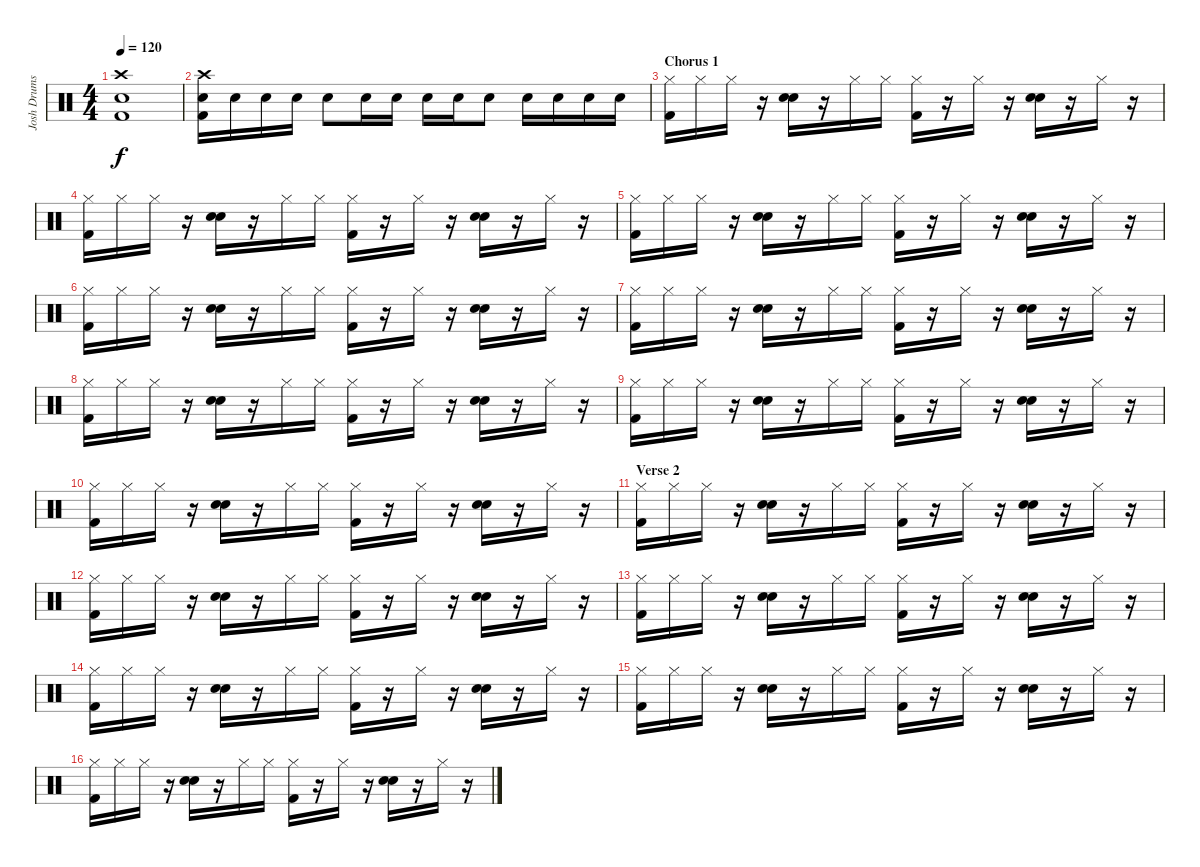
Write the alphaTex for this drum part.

\track ("Josh Drums" "Josh Drums") {instrument percussion}
\staff {score}
\articulation defaults
\ts (4 4)
\tempo 120
\clef neutral
\ks c
("Crash high (hit)" "Electric Snare (hit)" "Kick (hit) 2").1{dy f} |
("Crash high (hit)" "Electric Snare (hit)" "Kick (hit) 2").16 "Electric Snare (hit)".16 "Electric Snare (hit)".16 "Electric Snare (hit)".16 "Electric Snare (hit)".8 "Electric Snare (hit)".16 "Electric Snare (hit)".16 "Electric Snare (hit)".16 "Electric Snare (hit)".16 "Electric Snare (hit)".8 "Electric Snare (hit)".16 "Electric Snare (hit)".16 "Electric Snare (hit)".16 "Electric Snare (hit)".16 |
\section ("" "Chorus 1")
("Hi-Hat (closed)" "Kick (hit) 2").16 "Hi-Hat (closed)".16 "Hi-Hat (closed)".16 r.16 ("Hand Clap (hit)" "Hand Clap (hit)").16 r.16 "Hi-Hat (closed)".16 "Hi-Hat (closed)".16 ("Hi-Hat (closed)" "Kick (hit) 2").16 r.16 "Hi-Hat (closed)".16 r.16 ("Hand Clap (hit)" "Hand Clap (hit)").16 r.16 "Hi-Hat (closed)".16 r.16 |
("Hi-Hat (closed)" "Kick (hit) 2").16 "Hi-Hat (closed)".16 "Hi-Hat (closed)".16 r.16 ("Hand Clap (hit)" "Hand Clap (hit)").16 r.16 "Hi-Hat (closed)".16 "Hi-Hat (closed)".16 ("Hi-Hat (closed)" "Kick (hit) 2").16 r.16 "Hi-Hat (closed)".16 r.16 ("Hand Clap (hit)" "Hand Clap (hit)").16 r.16 "Hi-Hat (closed)".16 r.16 |
("Hi-Hat (closed)" "Kick (hit) 2").16 "Hi-Hat (closed)".16 "Hi-Hat (closed)".16 r.16 ("Hand Clap (hit)" "Hand Clap (hit)").16 r.16 "Hi-Hat (closed)".16 "Hi-Hat (closed)".16 ("Hi-Hat (closed)" "Kick (hit) 2").16 r.16 "Hi-Hat (closed)".16 r.16 ("Hand Clap (hit)" "Hand Clap (hit)").16 r.16 "Hi-Hat (closed)".16 r.16 |
("Hi-Hat (closed)" "Kick (hit) 2").16 "Hi-Hat (closed)".16 "Hi-Hat (closed)".16 r.16 ("Hand Clap (hit)" "Hand Clap (hit)").16 r.16 "Hi-Hat (closed)".16 "Hi-Hat (closed)".16 ("Hi-Hat (closed)" "Kick (hit) 2").16 r.16 "Hi-Hat (closed)".16 r.16 ("Hand Clap (hit)" "Hand Clap (hit)").16 r.16 "Hi-Hat (closed)".16 r.16 |
("Hi-Hat (closed)" "Kick (hit) 2").16 "Hi-Hat (closed)".16 "Hi-Hat (closed)".16 r.16 ("Hand Clap (hit)" "Hand Clap (hit)").16 r.16 "Hi-Hat (closed)".16 "Hi-Hat (closed)".16 ("Hi-Hat (closed)" "Kick (hit) 2").16 r.16 "Hi-Hat (closed)".16 r.16 ("Hand Clap (hit)" "Hand Clap (hit)").16 r.16 "Hi-Hat (closed)".16 r.16 |
("Hi-Hat (closed)" "Kick (hit) 2").16 "Hi-Hat (closed)".16 "Hi-Hat (closed)".16 r.16 ("Hand Clap (hit)" "Hand Clap (hit)").16 r.16 "Hi-Hat (closed)".16 "Hi-Hat (closed)".16 ("Hi-Hat (closed)" "Kick (hit) 2").16 r.16 "Hi-Hat (closed)".16 r.16 ("Hand Clap (hit)" "Hand Clap (hit)").16 r.16 "Hi-Hat (closed)".16 r.16 |
("Hi-Hat (closed)" "Kick (hit) 2").16 "Hi-Hat (closed)".16 "Hi-Hat (closed)".16 r.16 ("Hand Clap (hit)" "Hand Clap (hit)").16 r.16 "Hi-Hat (closed)".16 "Hi-Hat (closed)".16 ("Hi-Hat (closed)" "Kick (hit) 2").16 r.16 "Hi-Hat (closed)".16 r.16 ("Hand Clap (hit)" "Hand Clap (hit)").16 r.16 "Hi-Hat (closed)".16 r.16 |
("Hi-Hat (closed)" "Kick (hit) 2").16 "Hi-Hat (closed)".16 "Hi-Hat (closed)".16 r.16 ("Hand Clap (hit)" "Hand Clap (hit)").16 r.16 "Hi-Hat (closed)".16 "Hi-Hat (closed)".16 ("Hi-Hat (closed)" "Kick (hit) 2").16 r.16 "Hi-Hat (closed)".16 r.16 ("Hand Clap (hit)" "Hand Clap (hit)").16 r.16 "Hi-Hat (closed)".16 r.16 |
\section ("" "Verse 2")
("Hi-Hat (closed)" "Kick (hit) 2").16 "Hi-Hat (closed)".16 "Hi-Hat (closed)".16 r.16 ("Hand Clap (hit)" "Hand Clap (hit)").16 r.16 "Hi-Hat (closed)".16 "Hi-Hat (closed)".16 ("Hi-Hat (closed)" "Kick (hit) 2").16 r.16 "Hi-Hat (closed)".16 r.16 ("Hand Clap (hit)" "Hand Clap (hit)").16 r.16 "Hi-Hat (closed)".16 r.16 |
("Hi-Hat (closed)" "Kick (hit) 2").16 "Hi-Hat (closed)".16 "Hi-Hat (closed)".16 r.16 ("Hand Clap (hit)" "Hand Clap (hit)").16 r.16 "Hi-Hat (closed)".16 "Hi-Hat (closed)".16 ("Hi-Hat (closed)" "Kick (hit) 2").16 r.16 "Hi-Hat (closed)".16 r.16 ("Hand Clap (hit)" "Hand Clap (hit)").16 r.16 "Hi-Hat (closed)".16 r.16 |
("Hi-Hat (closed)" "Kick (hit) 2").16 "Hi-Hat (closed)".16 "Hi-Hat (closed)".16 r.16 ("Hand Clap (hit)" "Hand Clap (hit)").16 r.16 "Hi-Hat (closed)".16 "Hi-Hat (closed)".16 ("Hi-Hat (closed)" "Kick (hit) 2").16 r.16 "Hi-Hat (closed)".16 r.16 ("Hand Clap (hit)" "Hand Clap (hit)").16 r.16 "Hi-Hat (closed)".16 r.16 |
("Hi-Hat (closed)" "Kick (hit) 2").16 "Hi-Hat (closed)".16 "Hi-Hat (closed)".16 r.16 ("Hand Clap (hit)" "Hand Clap (hit)").16 r.16 "Hi-Hat (closed)".16 "Hi-Hat (closed)".16 ("Hi-Hat (closed)" "Kick (hit) 2").16 r.16 "Hi-Hat (closed)".16 r.16 ("Hand Clap (hit)" "Hand Clap (hit)").16 r.16 "Hi-Hat (closed)".16 r.16 |
("Hi-Hat (closed)" "Kick (hit) 2").16 "Hi-Hat (closed)".16 "Hi-Hat (closed)".16 r.16 ("Hand Clap (hit)" "Hand Clap (hit)").16 r.16 "Hi-Hat (closed)".16 "Hi-Hat (closed)".16 ("Hi-Hat (closed)" "Kick (hit) 2").16 r.16 "Hi-Hat (closed)".16 r.16 ("Hand Clap (hit)" "Hand Clap (hit)").16 r.16 "Hi-Hat (closed)".16 r.16 |
("Hi-Hat (closed)" "Kick (hit) 2").16 "Hi-Hat (closed)".16 "Hi-Hat (closed)".16 r.16 ("Hand Clap (hit)" "Hand Clap (hit)").16 r.16 "Hi-Hat (closed)".16 "Hi-Hat (closed)".16 ("Hi-Hat (closed)" "Kick (hit) 2").16 r.16 "Hi-Hat (closed)".16 r.16 ("Hand Clap (hit)" "Hand Clap (hit)").16 r.16 "Hi-Hat (closed)".16 r.16
